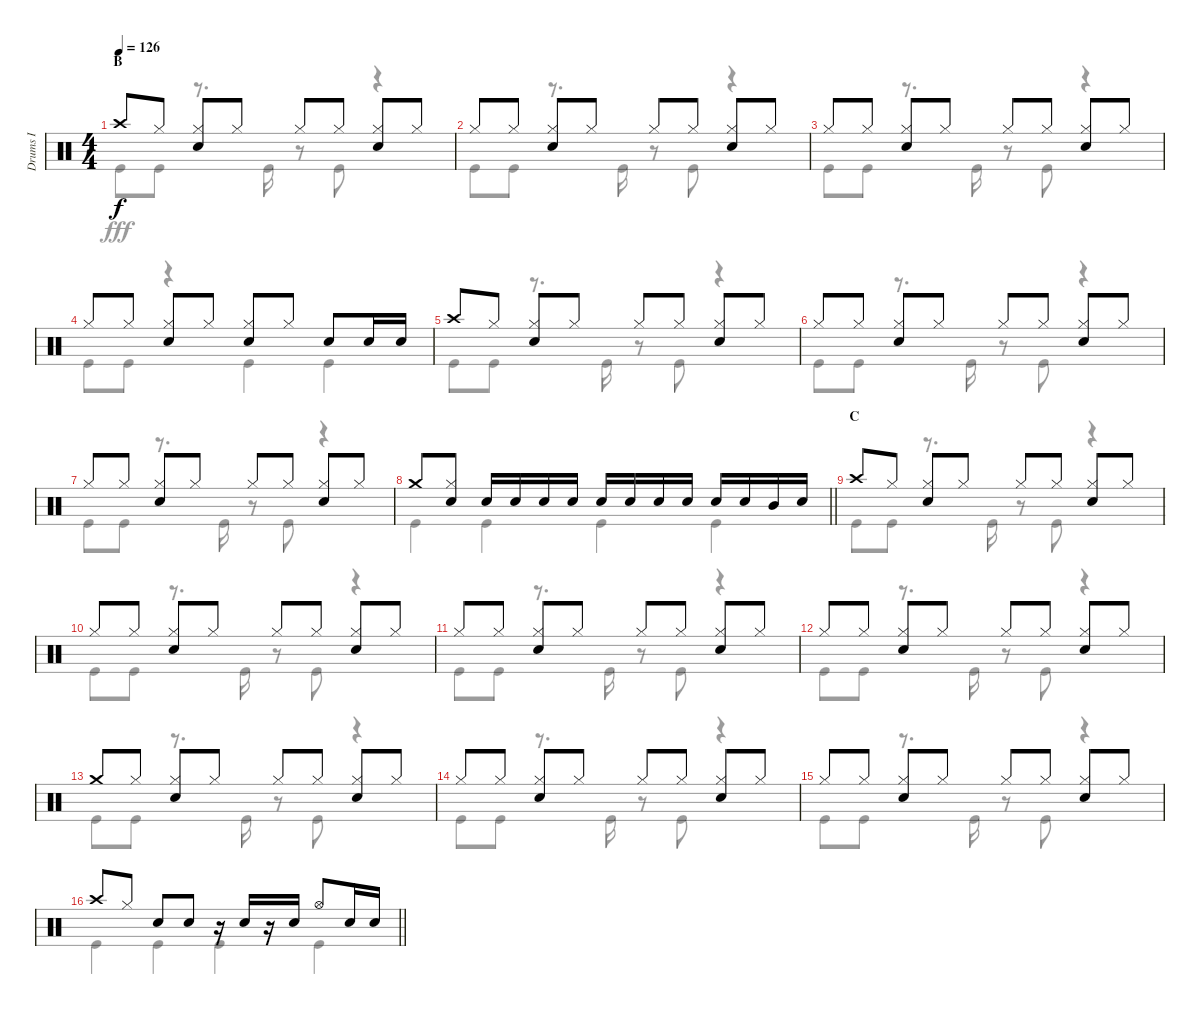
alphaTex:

\track ("Drums I" "Drums I") {instrument percussion}
\staff {score}
\articulation defaults
\voice
\ts (4 4)
\section ("" "B")
\tempo 126
\clef neutral
\ks c "Crash high (hit)".8{dy f} "Hi-Hat (closed)".8
("Hi-Hat (closed)" "Snare (hit) 2").8 "Hi-Hat (closed)".8 "Hi-Hat (closed)".8 "Hi-Hat (closed)".8 ("Hi-Hat (closed)" "Snare (hit) 2").8 "Hi-Hat (closed)".8 |
"Hi-Hat (closed)".8 "Hi-Hat (closed)".8 ("Hi-Hat (closed)" "Snare (hit) 2").8 "Hi-Hat (closed)".8 "Hi-Hat (closed)".8 "Hi-Hat (closed)".8 ("Hi-Hat (closed)" "Snare (hit) 2").8 "Hi-Hat (closed)".8 |
"Hi-Hat (closed)".8 "Hi-Hat (closed)".8 ("Hi-Hat (closed)" "Snare (hit) 2").8 "Hi-Hat (closed)".8 "Hi-Hat (closed)".8 "Hi-Hat (closed)".8 ("Hi-Hat (closed)" "Snare (hit) 2").8 "Hi-Hat (closed)".8 |
"Hi-Hat (closed)".8 "Hi-Hat (closed)".8 ("Hi-Hat (closed)" "Snare (hit) 2").8 "Hi-Hat (closed)".8 ("Hi-Hat (closed)" "Snare (hit) 2").8 "Hi-Hat (closed)".8 "Snare (hit) 2".8 "Snare (hit) 2".16 "Snare (hit) 2".16 |
"Crash high (hit)".8 "Hi-Hat (closed)".8 ("Hi-Hat (closed)" "Snare (hit) 2").8 "Hi-Hat (closed)".8 "Hi-Hat (closed)".8 "Hi-Hat (closed)".8 ("Hi-Hat (closed)" "Snare (hit) 2").8 "Hi-Hat (closed)".8 |
"Hi-Hat (closed)".8 "Hi-Hat (closed)".8 ("Hi-Hat (closed)" "Snare (hit) 2").8 "Hi-Hat (closed)".8 "Hi-Hat (closed)".8 "Hi-Hat (closed)".8 ("Hi-Hat (closed)" "Snare (hit) 2").8 "Hi-Hat (closed)".8 |
"Hi-Hat (closed)".8 "Hi-Hat (closed)".8 ("Hi-Hat (closed)" "Snare (hit) 2").8 "Hi-Hat (closed)".8 "Hi-Hat (closed)".8 "Hi-Hat (closed)".8 ("Hi-Hat (closed)" "Snare (hit) 2").8 "Hi-Hat (closed)".8 |
\barLineRight lightlight "Crash medium (hit)".8
("Hi-Hat (closed)" "Snare (hit) 2").8 "Snare (hit) 2".16 "Snare (hit) 2".16 "Snare (hit) 2".16 "Snare (hit) 2".16 "Snare (hit) 2".16 "Snare (hit) 2".16 "Snare (hit) 2".16 "Snare (hit) 2".16 "Snare (hit) 2".16 "Snare (hit) 2".16 "Mid Tom (hit)".16 "Snare (hit) 2".16 |
\section ("" "C")
"Crash high (hit)".8 "Hi-Hat (closed)".8 ("Hi-Hat (closed)" "Snare (hit) 2").8 "Hi-Hat (closed)".8 "Hi-Hat (closed)".8 "Hi-Hat (closed)".8 ("Hi-Hat (closed)" "Snare (hit) 2").8 "Hi-Hat (closed)".8 |
"Hi-Hat (closed)".8 "Hi-Hat (closed)".8 ("Hi-Hat (closed)" "Snare (hit) 2").8 "Hi-Hat (closed)".8 "Hi-Hat (closed)".8 "Hi-Hat (closed)".8 ("Hi-Hat (closed)" "Snare (hit) 2").8 "Hi-Hat (closed)".8 |
"Hi-Hat (closed)".8 "Hi-Hat (closed)".8 ("Hi-Hat (closed)" "Snare (hit) 2").8 "Hi-Hat (closed)".8 "Hi-Hat (closed)".8 "Hi-Hat (closed)".8 ("Hi-Hat (closed)" "Snare (hit) 2").8 "Hi-Hat (closed)".8 |
"Hi-Hat (closed)".8 "Hi-Hat (closed)".8 ("Hi-Hat (closed)" "Snare (hit) 2").8 "Hi-Hat (closed)".8 "Hi-Hat (closed)".8 "Hi-Hat (closed)".8 ("Hi-Hat (closed)" "Snare (hit) 2").8 "Hi-Hat (closed)".8 |
"Crash medium (hit)".8 "Hi-Hat (closed)".8 ("Hi-Hat (closed)" "Snare (hit) 2").8 "Hi-Hat (closed)".8 "Hi-Hat (closed)".8 "Hi-Hat (closed)".8 ("Hi-Hat (closed)" "Snare (hit) 2").8 "Hi-Hat (closed)".8 |
"Hi-Hat (closed)".8 "Hi-Hat (closed)".8 ("Hi-Hat (closed)" "Snare (hit) 2").8 "Hi-Hat (closed)".8 "Hi-Hat (closed)".8 "Hi-Hat (closed)".8 ("Hi-Hat (closed)" "Snare (hit) 2").8 "Hi-Hat (closed)".8 |
"Hi-Hat (closed)".8 "Hi-Hat (closed)".8 ("Hi-Hat (closed)" "Snare (hit) 2").8 "Hi-Hat (closed)".8 "Hi-Hat (closed)".8 "Hi-Hat (closed)".8 ("Hi-Hat (closed)" "Snare (hit) 2").8 "Hi-Hat (closed)".8 |
\barLineRight lightlight "Crash high (hit)".8 "Hi-Hat (closed)".8 "Snare (hit) 2".8 "Snare (hit) 2".8
r.16 "Snare (hit) 2".16 r.16 "Snare (hit) 2".16 "Hi-Hat (open)".8 "Snare (hit) 2".16 "Snare (hit) 2".16
\voice
\clef neutral
\ottava regular
\simile none
\ks c "Kick (hit)".8{dy fff} "Kick (hit)".8
r.8{d} "Kick (hit)".16 r.8 "Kick (hit)".8 r.4 |
"Kick (hit)".8 "Kick (hit)".8 r.8{d} "Kick (hit)".16 r.8 "Kick (hit)".8 r.4 |
"Kick (hit)".8 "Kick (hit)".8 r.8{d} "Kick (hit)".16 r.8 "Kick (hit)".8 r.4 |
"Kick (hit)".8 "Kick (hit)".8 r.4 "Kick (hit)".4 "Kick (hit)".4 |
"Kick (hit)".8 "Kick (hit)".8 r.8{d} "Kick (hit)".16 r.8 "Kick (hit)".8 r.4 |
"Kick (hit)".8 "Kick (hit)".8 r.8{d} "Kick (hit)".16 r.8 "Kick (hit)".8 r.4 |
"Kick (hit)".8 "Kick (hit)".8 r.8{d} "Kick (hit)".16 r.8 "Kick (hit)".8 r.4 |
\barLineRight lightlight "Kick (hit)".4 "Kick (hit)".4 "Kick (hit)".4 "Kick (hit)".4
|
"Kick (hit)".8 "Kick (hit)".8 r.8{d} "Kick (hit)".16 r.8 "Kick (hit)".8 r.4 |
"Kick (hit)".8 "Kick (hit)".8 r.8{d} "Kick (hit)".16 r.8 "Kick (hit)".8 r.4 |
"Kick (hit)".8 "Kick (hit)".8 r.8{d} "Kick (hit)".16 r.8 "Kick (hit)".8 r.4 |
"Kick (hit)".8 "Kick (hit)".8 r.8{d} "Kick (hit)".16 r.8 "Kick (hit)".8 r.4 |
"Kick (hit)".8 "Kick (hit)".8 r.8{d} "Kick (hit)".16 r.8 "Kick (hit)".8 r.4 |
"Kick (hit)".8 "Kick (hit)".8 r.8{d} "Kick (hit)".16 r.8 "Kick (hit)".8 r.4 |
"Kick (hit)".8 "Kick (hit)".8 r.8{d} "Kick (hit)".16 r.8 "Kick (hit)".8 r.4 |
\barLineRight lightlight "Kick (hit)".4 "Kick (hit)".4 "Kick (hit)".4 "Kick (hit)".4
